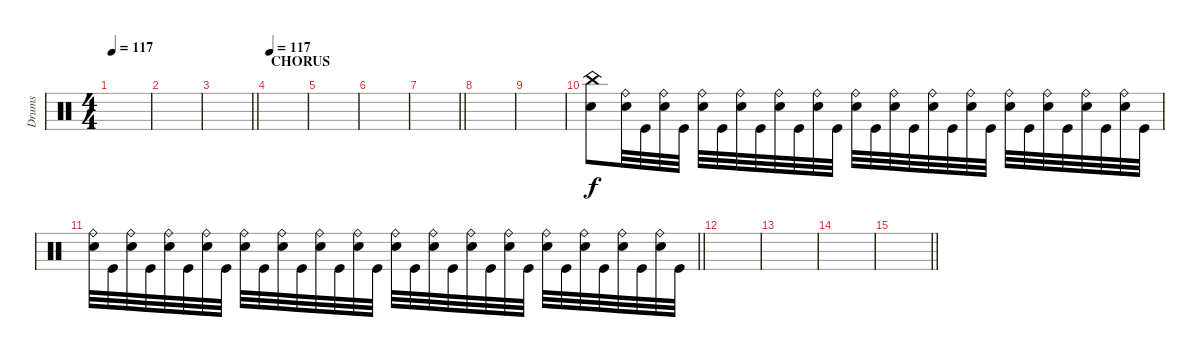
\track ("Drums" "Drums") {instrument percussion}
\staff
\articulation defaults
\ts (4 4)
\tempo 117
\clef neutral
\ks c
|
|
\barLineRight lightlight
|
\section ("" "CHORUS")
\tempo 117
|
|
|
\barLineRight lightlight
|
|
|
("China (hit)" "Electric Snare (hit)").8 ("Ride (bell)" "Electric Snare (hit)").32 "Kick (hit)".32 ("Ride (bell)" "Electric Snare (hit)").32 "Kick (hit)".32 ("Ride (bell)" "Electric Snare (hit)").32 "Kick (hit)".32 ("Ride (bell)" "Electric Snare (hit)").32 "Kick (hit)".32 ("Ride (bell)" "Electric Snare (hit)").32 "Kick (hit)".32 ("Ride (bell)" "Electric Snare (hit)").32 "Kick (hit)".32 ("Ride (bell)" "Electric Snare (hit)").32 "Kick (hit)".32 ("Ride (bell)" "Electric Snare (hit)").32 "Kick (hit)".32 ("Ride (bell)" "Electric Snare (hit)").32 "Kick (hit)".32 ("Ride (bell)" "Electric Snare (hit)").32 "Kick (hit)".32 ("Ride (bell)" "Electric Snare (hit)").32 "Kick (hit)".32 ("Ride (bell)" "Electric Snare (hit)").32 "Kick (hit)".32 ("Ride (bell)" "Electric Snare (hit)").32 "Kick (hit)".32 ("Ride (bell)" "Electric Snare (hit)").32 "Kick (hit)".32 |
\barLineRight lightlight
("Ride (bell)" "Electric Snare (hit)").32 "Kick (hit)".32 ("Ride (bell)" "Electric Snare (hit)").32 "Kick (hit)".32 ("Ride (bell)" "Electric Snare (hit)").32 "Kick (hit)".32 ("Ride (bell)" "Electric Snare (hit)").32 "Kick (hit)".32 ("Ride (bell)" "Electric Snare (hit)").32 "Kick (hit)".32 ("Ride (bell)" "Electric Snare (hit)").32 "Kick (hit)".32 ("Ride (bell)" "Electric Snare (hit)").32 "Kick (hit)".32 ("Ride (bell)" "Electric Snare (hit)").32 "Kick (hit)".32 ("Ride (bell)" "Electric Snare (hit)").32 "Kick (hit)".32 ("Ride (bell)" "Electric Snare (hit)").32 "Kick (hit)".32 ("Ride (bell)" "Electric Snare (hit)").32 "Kick (hit)".32 ("Ride (bell)" "Electric Snare (hit)").32 "Kick (hit)".32 ("Ride (bell)" "Electric Snare (hit)").32 "Kick (hit)".32 ("Ride (bell)" "Electric Snare (hit)").32 "Kick (hit)".32 ("Ride (bell)" "Electric Snare (hit)").32 "Kick (hit)".32 ("Ride (bell)" "Electric Snare (hit)").32 "Kick (hit)".32 |
|
|
|
\barLineRight lightlight
